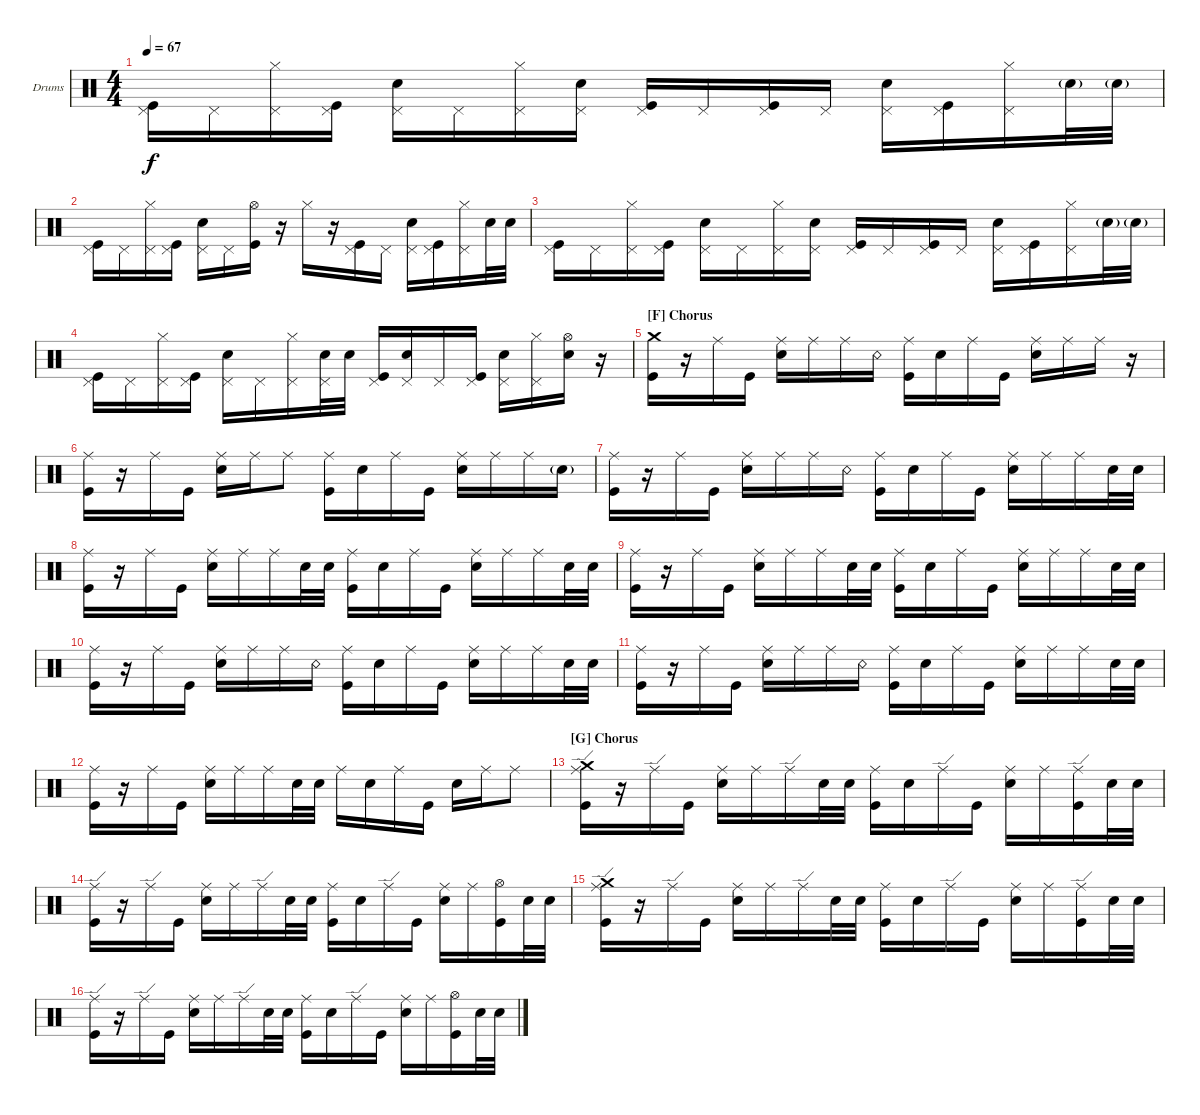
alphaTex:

\defaultSystemsLayout 4
\bracketExtendMode groupsimilarinstruments
\firstSystemTrackNameOrientation horizontal
\otherSystemsTrackNameOrientation horizontal
\track ("Freese" "Drums") {instrument percussion}
\staff {score}
\articulation defaults
\ts (4 4)
\tempo 67
\clef neutral
\scale
0.333333
\ks c
("Pedal Hi-Hat (hit)" "Kick (hit)").16{dy f} "Pedal Hi-Hat (hit)".16 ("Pedal Hi-Hat (hit)" "Hi-Hat (closed)").16 ("Pedal Hi-Hat (hit)" "Kick (hit)").16 ("Pedal Hi-Hat (hit)" "Snare (hit) 2").16 "Pedal Hi-Hat (hit)".16 ("Pedal Hi-Hat (hit)" "Hi-Hat (closed)").16 ("Pedal Hi-Hat (hit)" "Snare (hit) 2").16 ("Pedal Hi-Hat (hit)" "Kick (hit)").16 "Pedal Hi-Hat (hit)".16 ("Pedal Hi-Hat (hit)" "Kick (hit)").16 "Pedal Hi-Hat (hit)".16 ("Pedal Hi-Hat (hit)" "Snare (hit) 2").16 ("Pedal Hi-Hat (hit)" "Kick (hit)").16 ("Pedal Hi-Hat (hit)" "Hi-Hat (closed)").16 "Snare (hit) 2"{g}.32 "Snare (hit) 2"{g}.32 |
\scale
0.333333 ("Pedal Hi-Hat (hit)" "Kick (hit)").16 "Pedal Hi-Hat (hit)".16 ("Pedal Hi-Hat (hit)" "Hi-Hat (closed)").16 ("Pedal Hi-Hat (hit)" "Kick (hit)").16 ("Pedal Hi-Hat (hit)" "Snare (hit) 2").16 "Pedal Hi-Hat (hit)".16 ("Hi-Hat (open)" "Kick (hit)").16 r.16 "Hi-Hat (closed)".16 r.16 ("Pedal Hi-Hat (hit)" "Kick (hit)").16 "Pedal Hi-Hat (hit)".16 ("Pedal Hi-Hat (hit)" "Snare (hit) 2").16 ("Pedal Hi-Hat (hit)" "Kick (hit)").16 ("Pedal Hi-Hat (hit)" "Hi-Hat (closed)").16 "Snare (hit) 2".32 "Snare (hit) 2".32 |
\scale
0.333333 ("Pedal Hi-Hat (hit)" "Kick (hit)").16 "Pedal Hi-Hat (hit)".16 ("Pedal Hi-Hat (hit)" "Hi-Hat (closed)").16 ("Pedal Hi-Hat (hit)" "Kick (hit)").16 ("Pedal Hi-Hat (hit)" "Snare (hit) 2").16 "Pedal Hi-Hat (hit)".16 ("Pedal Hi-Hat (hit)" "Hi-Hat (closed)").16 ("Pedal Hi-Hat (hit)" "Snare (hit) 2").16 ("Pedal Hi-Hat (hit)" "Kick (hit)").16 "Pedal Hi-Hat (hit)".16 ("Pedal Hi-Hat (hit)" "Kick (hit)").16 "Pedal Hi-Hat (hit)".16 ("Pedal Hi-Hat (hit)" "Snare (hit) 2").16 ("Pedal Hi-Hat (hit)" "Kick (hit)").16 ("Pedal Hi-Hat (hit)" "Hi-Hat (closed)").16 "Snare (hit) 2"{g}.32 "Snare (hit) 2"{g}.32 |
\scale
0.333333 ("Pedal Hi-Hat (hit)" "Kick (hit)").16 "Pedal Hi-Hat (hit)".16 ("Pedal Hi-Hat (hit)" "Hi-Hat (closed)").16 ("Pedal Hi-Hat (hit)" "Kick (hit)").16 ("Pedal Hi-Hat (hit)" "Snare (hit) 2").16 "Pedal Hi-Hat (hit)".16 ("Pedal Hi-Hat (hit)" "Hi-Hat (closed)").16 ("Pedal Hi-Hat (hit)" "Snare (hit) 2").32 "Snare (hit) 2".32 ("Pedal Hi-Hat (hit)" "Kick (hit)").16 ("Pedal Hi-Hat (hit)" "Snare (hit) 2").16 "Pedal Hi-Hat (hit)".16 ("Pedal Hi-Hat (hit)" "Kick (hit)").16 ("Pedal Hi-Hat (hit)" "Snare (hit) 2").16 ("Pedal Hi-Hat (hit)" "Hi-Hat (closed)").16 ("Snare (hit) 2" "Hi-Hat (open)").16 r.16 |
\section ("F" "Chorus")
\scale
0.333333 ("Kick (hit)" "Crash medium (hit)").16 r.16 "Ride (middle)".16 "Kick (hit)".16 ("Ride (middle)" "Snare (hit) 2").16 "Ride (middle)".16 "Ride (middle)".16 "Snare (rim shot)".16 ("Kick (hit)" "Ride (middle)").16 "Snare (hit) 2".16 "Ride (middle)".16 "Kick (hit)".16 ("Ride (middle)" "Snare (hit) 2").16 "Ride (middle)".16 "Ride (middle)".16 r.16 |
\scale
0.333333 ("Kick (hit)" "Ride (middle)").16 r.16 "Ride (middle)".16 "Kick (hit)".16 ("Ride (middle)" "Snare (hit) 2").16 "Ride (middle)".16 "Ride (middle)".8 ("Kick (hit)" "Ride (middle)").16 "Snare (hit) 2".16 "Ride (middle)".16 "Kick (hit)".16 ("Ride (middle)" "Snare (hit) 2").16 "Ride (middle)".16 "Ride (middle)".16 "Snare (hit) 2"{g}.16 |
\scale
0.333333 ("Kick (hit)" "Ride (middle)").16 r.16 "Ride (middle)".16 "Kick (hit)".16 ("Ride (middle)" "Snare (hit) 2").16 "Ride (middle)".16 "Ride (middle)".16 "Snare (rim shot)".16 ("Kick (hit)" "Ride (middle)").16 "Snare (hit) 2".16 "Ride (middle)".16 "Kick (hit)".16 ("Ride (middle)" "Snare (hit) 2").16 "Ride (middle)".16 "Ride (middle)".16 "Snare (hit) 2".32 "Snare (hit) 2".32 |
\scale
0.333333 ("Kick (hit)" "Ride (middle)").16 r.16 "Ride (middle)".16 "Kick (hit)".16 ("Ride (middle)" "Snare (hit) 2").16 "Ride (middle)".16 "Ride (middle)".16 "Snare (hit) 2".32 "Snare (hit) 2".32 ("Kick (hit)" "Ride (middle)").16 "Snare (hit) 2".16 "Ride (middle)".16 "Kick (hit)".16 ("Ride (middle)" "Snare (hit) 2").16 "Ride (middle)".16 "Ride (middle)".16 "Snare (hit) 2".32 "Snare (hit) 2".32 |
\scale
0.333333 ("Kick (hit)" "Ride (middle)").16 r.16 "Ride (middle)".16 "Kick (hit)".16 ("Ride (middle)" "Snare (hit) 2").16 "Ride (middle)".16 "Ride (middle)".16 "Snare (hit) 2".32 "Snare (hit) 2".32 ("Kick (hit)" "Ride (middle)").16 "Snare (hit) 2".16 "Ride (middle)".16 "Kick (hit)".16 ("Ride (middle)" "Snare (hit) 2").16 "Ride (middle)".16 "Ride (middle)".16 "Snare (hit) 2".32 "Snare (hit) 2".32 |
\scale
0.333333 ("Kick (hit)" "Ride (middle)").16 r.16 "Ride (middle)".16 "Kick (hit)".16 ("Ride (middle)" "Snare (hit) 2").16 "Ride (middle)".16 "Ride (middle)".16 "Snare (rim shot)".16 ("Kick (hit)" "Ride (middle)").16 "Snare (hit) 2".16 "Ride (middle)".16 "Kick (hit)".16 ("Ride (middle)" "Snare (hit) 2").16 "Ride (middle)".16 "Ride (middle)".16 "Snare (hit) 2".32 "Snare (hit) 2".32 |
\scale
0.333333 ("Kick (hit)" "Ride (middle)").16 r.16 "Ride (middle)".16 "Kick (hit)".16 ("Ride (middle)" "Snare (hit) 2").16 "Ride (middle)".16 "Ride (middle)".16 "Snare (rim shot)".16 ("Kick (hit)" "Ride (middle)").16 "Snare (hit) 2".16 "Ride (middle)".16 "Kick (hit)".16 ("Ride (middle)" "Snare (hit) 2").16 "Ride (middle)".16 "Ride (middle)".16 "Snare (hit) 2".32 "Snare (hit) 2".32 |
\scale
0.333333 ("Kick (hit)" "Ride (middle)").16 r.16 "Ride (middle)".16 "Kick (hit)".16 ("Ride (middle)" "Snare (hit) 2").16 "Ride (middle)".16 "Ride (middle)".16 "Snare (hit) 2".32 "Snare (hit) 2".32 "Ride (middle)".16 "Snare (hit) 2".16 "Ride (middle)".16 "Kick (hit)".16 "Snare (hit) 2".16 "Ride (middle)".16 "Ride (middle)".8 |
\section ("G" "Chorus")
\scale
0.333333 ("Kick (hit)" "Crash medium (hit)" "Ride (edge)").16 r.16 "Ride (edge)".16 "Kick (hit)".16 ("Ride (middle)" "Snare (hit) 2").16 "Ride (middle)".16 "Ride (edge)".16 "Snare (hit) 2".32 "Snare (hit) 2".32 ("Kick (hit)" "Ride (middle)").16 "Snare (hit) 2".16 "Ride (edge)".16 "Kick (hit)".16 ("Ride (middle)" "Snare (hit) 2").16 "Ride (middle)".16 ("Ride (edge)" "Kick (hit)").16 "Snare (hit) 2".32 "Snare (hit) 2".32 |
\scale
0.333333 ("Kick (hit)" "Ride (edge)").16 r.16 "Ride (edge)".16 "Kick (hit)".16 ("Ride (middle)" "Snare (hit) 2").16 "Ride (middle)".16 "Ride (edge)".16 "Snare (hit) 2".32 "Snare (hit) 2".32 ("Kick (hit)" "Ride (middle)").16 "Snare (hit) 2".16 "Ride (edge)".16 "Kick (hit)".16 ("Ride (middle)" "Snare (hit) 2").16 "Ride (middle)".16 ("Kick (hit)" "Hi-Hat (open)").16 "Snare (hit) 2".32 "Snare (hit) 2".32 |
\scale
0.333333 ("Kick (hit)" "Crash medium (hit)" "Ride (edge)").16 r.16 "Ride (edge)".16 "Kick (hit)".16 ("Ride (middle)" "Snare (hit) 2").16 "Ride (middle)".16 "Ride (edge)".16 "Snare (hit) 2".32 "Snare (hit) 2".32 ("Kick (hit)" "Ride (middle)").16 "Snare (hit) 2".16 "Ride (edge)".16 "Kick (hit)".16 ("Ride (middle)" "Snare (hit) 2").16 "Ride (middle)".16 ("Ride (edge)" "Kick (hit)").16 "Snare (hit) 2".32 "Snare (hit) 2".32 |
\scale
0.333333 ("Kick (hit)" "Ride (edge)").16 r.16 "Ride (edge)".16 "Kick (hit)".16 ("Ride (middle)" "Snare (hit) 2").16 "Ride (middle)".16 "Ride (edge)".16 "Snare (hit) 2".32 "Snare (hit) 2".32 ("Kick (hit)" "Ride (middle)").16 "Snare (hit) 2".16 "Ride (edge)".16 "Kick (hit)".16 ("Ride (middle)" "Snare (hit) 2").16 "Ride (middle)".16 ("Kick (hit)" "Hi-Hat (open)").16 "Snare (hit) 2".32 "Snare (hit) 2".32
